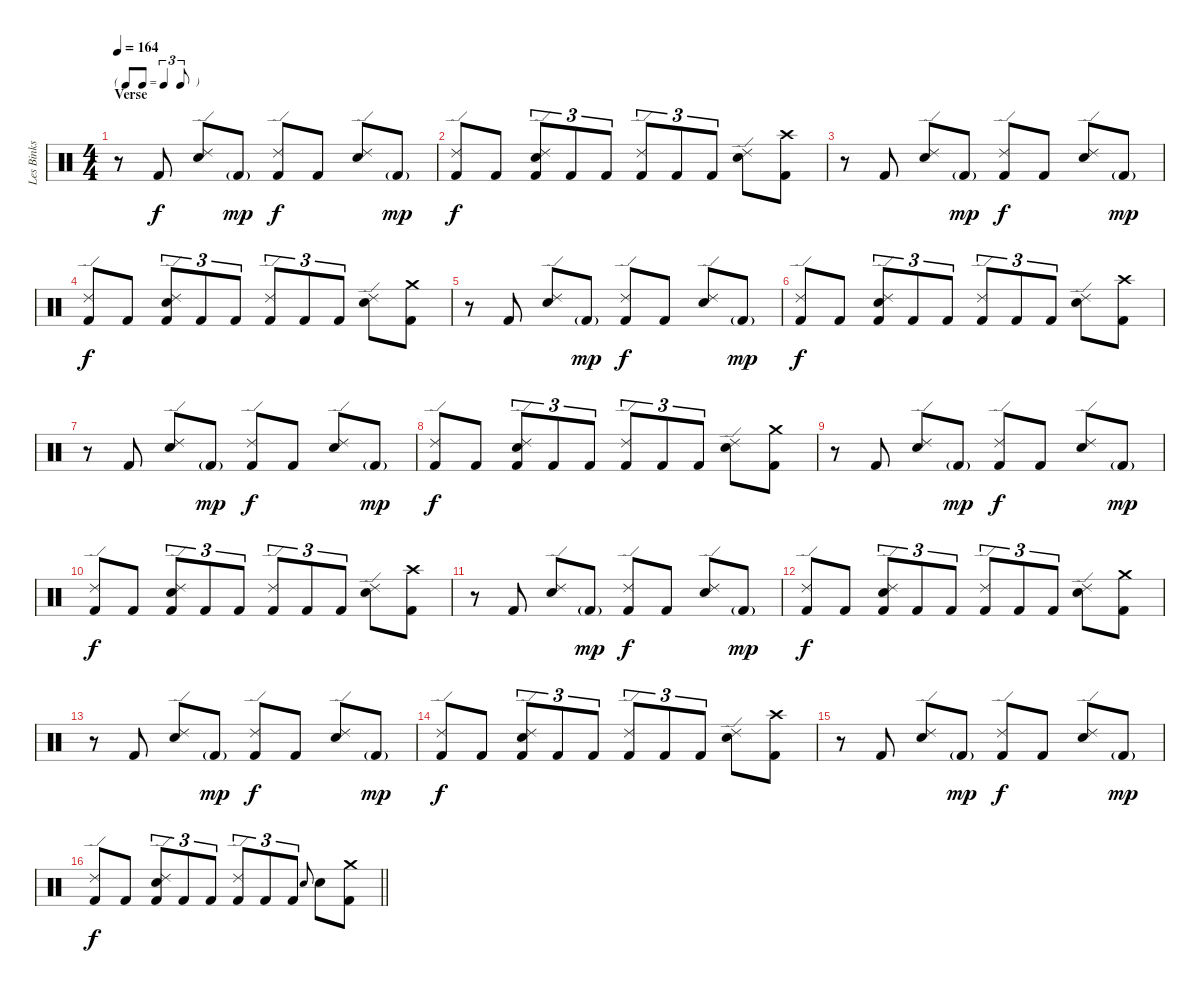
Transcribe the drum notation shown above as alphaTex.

\track ("Les Binks" "Les Binks") {instrument percussion}
\staff {score}
\articulation defaults
\ts (4 4)
\tf triplet8th
\section ("" "Verse")
\tempo 164
\clef neutral
\ks c
r.8{dy f} "Kick (hit) 2".8 ("Ride (edge) 2" "Electric Snare (hit)").8 "Kick (hit) 2"{g}.8{dy mp} ("Ride (edge) 2" "Kick (hit) 2").8{dy f} "Kick (hit) 2".8 ("Ride (edge) 2" "Electric Snare (hit)").8 "Kick (hit) 2"{g}.8{dy mp} |
("Ride (edge) 2" "Kick (hit) 2").8{dy f} "Kick (hit) 2".8 ("Ride (edge) 2" "Electric Snare (hit)" "Kick (hit) 2").8{tu (3 2)} "Kick (hit) 2".8{tu (3 2)} "Kick (hit) 2".8{tu (3 2)} ("Ride (edge) 2" "Kick (hit) 2").8{tu (3 2)} "Kick (hit) 2".8{tu (3 2)} "Kick (hit) 2".8{tu (3 2)} ("Ride (edge) 2" "Electric Snare (hit)").8 ("Crash high (hit)" "Kick (hit) 2").8 |
r.8 "Kick (hit) 2".8 ("Ride (edge) 2" "Electric Snare (hit)").8 "Kick (hit) 2"{g}.8{dy mp} ("Ride (edge) 2" "Kick (hit) 2").8{dy f} "Kick (hit) 2".8 ("Ride (edge) 2" "Electric Snare (hit)").8 "Kick (hit) 2"{g}.8{dy mp} |
("Ride (edge) 2" "Kick (hit) 2").8{dy f} "Kick (hit) 2".8 ("Ride (edge) 2" "Electric Snare (hit)" "Kick (hit) 2").8{tu (3 2)} "Kick (hit) 2".8{tu (3 2)} "Kick (hit) 2".8{tu (3 2)} ("Ride (edge) 2" "Kick (hit) 2").8{tu (3 2)} "Kick (hit) 2".8{tu (3 2)} "Kick (hit) 2".8{tu (3 2)} ("Ride (edge) 2" "Electric Snare (hit)").8 ("Crash medium (hit)" "Kick (hit) 2").8 |
r.8 "Kick (hit) 2".8 ("Ride (edge) 2" "Electric Snare (hit)").8 "Kick (hit) 2"{g}.8{dy mp} ("Ride (edge) 2" "Kick (hit) 2").8{dy f} "Kick (hit) 2".8 ("Ride (edge) 2" "Electric Snare (hit)").8 "Kick (hit) 2"{g}.8{dy mp} |
("Ride (edge) 2" "Kick (hit) 2").8{dy f} "Kick (hit) 2".8 ("Ride (edge) 2" "Electric Snare (hit)" "Kick (hit) 2").8{tu (3 2)} "Kick (hit) 2".8{tu (3 2)} "Kick (hit) 2".8{tu (3 2)} ("Ride (edge) 2" "Kick (hit) 2").8{tu (3 2)} "Kick (hit) 2".8{tu (3 2)} "Kick (hit) 2".8{tu (3 2)} ("Ride (edge) 2" "Electric Snare (hit)").8 ("Crash high (hit)" "Kick (hit) 2").8 |
r.8 "Kick (hit) 2".8 ("Ride (edge) 2" "Electric Snare (hit)").8 "Kick (hit) 2"{g}.8{dy mp} ("Ride (edge) 2" "Kick (hit) 2").8{dy f} "Kick (hit) 2".8 ("Ride (edge) 2" "Electric Snare (hit)").8 "Kick (hit) 2"{g}.8{dy mp} |
("Ride (edge) 2" "Kick (hit) 2").8{dy f} "Kick (hit) 2".8 ("Ride (edge) 2" "Electric Snare (hit)" "Kick (hit) 2").8{tu (3 2)} "Kick (hit) 2".8{tu (3 2)} "Kick (hit) 2".8{tu (3 2)} ("Ride (edge) 2" "Kick (hit) 2").8{tu (3 2)} "Kick (hit) 2".8{tu (3 2)} "Kick (hit) 2".8{tu (3 2)} ("Ride (edge) 2" "Electric Snare (hit)").8 ("Crash medium (hit)" "Kick (hit) 2").8 |
r.8 "Kick (hit) 2".8 ("Ride (edge) 2" "Electric Snare (hit)").8 "Kick (hit) 2"{g}.8{dy mp} ("Ride (edge) 2" "Kick (hit) 2").8{dy f} "Kick (hit) 2".8 ("Ride (edge) 2" "Electric Snare (hit)").8 "Kick (hit) 2"{g}.8{dy mp} |
("Ride (edge) 2" "Kick (hit) 2").8{dy f} "Kick (hit) 2".8 ("Ride (edge) 2" "Electric Snare (hit)" "Kick (hit) 2").8{tu (3 2)} "Kick (hit) 2".8{tu (3 2)} "Kick (hit) 2".8{tu (3 2)} ("Ride (edge) 2" "Kick (hit) 2").8{tu (3 2)} "Kick (hit) 2".8{tu (3 2)} "Kick (hit) 2".8{tu (3 2)} ("Ride (edge) 2" "Electric Snare (hit)").8 ("Crash high (hit)" "Kick (hit) 2").8 |
r.8 "Kick (hit) 2".8 ("Ride (edge) 2" "Electric Snare (hit)").8 "Kick (hit) 2"{g}.8{dy mp} ("Ride (edge) 2" "Kick (hit) 2").8{dy f} "Kick (hit) 2".8 ("Ride (edge) 2" "Electric Snare (hit)").8 "Kick (hit) 2"{g}.8{dy mp} |
("Ride (edge) 2" "Kick (hit) 2").8{dy f} "Kick (hit) 2".8 ("Ride (edge) 2" "Electric Snare (hit)" "Kick (hit) 2").8{tu (3 2)} "Kick (hit) 2".8{tu (3 2)} "Kick (hit) 2".8{tu (3 2)} ("Ride (edge) 2" "Kick (hit) 2").8{tu (3 2)} "Kick (hit) 2".8{tu (3 2)} "Kick (hit) 2".8{tu (3 2)} ("Ride (edge) 2" "Electric Snare (hit)").8 ("Crash medium (hit)" "Kick (hit) 2").8 |
r.8 "Kick (hit) 2".8 ("Ride (edge) 2" "Electric Snare (hit)").8 "Kick (hit) 2"{g}.8{dy mp} ("Ride (edge) 2" "Kick (hit) 2").8{dy f} "Kick (hit) 2".8 ("Ride (edge) 2" "Electric Snare (hit)").8 "Kick (hit) 2"{g}.8{dy mp} |
("Ride (edge) 2" "Kick (hit) 2").8{dy f} "Kick (hit) 2".8 ("Ride (edge) 2" "Electric Snare (hit)" "Kick (hit) 2").8{tu (3 2)} "Kick (hit) 2".8{tu (3 2)} "Kick (hit) 2".8{tu (3 2)} ("Ride (edge) 2" "Kick (hit) 2").8{tu (3 2)} "Kick (hit) 2".8{tu (3 2)} "Kick (hit) 2".8{tu (3 2)} ("Ride (edge) 2" "Electric Snare (hit)").8 ("Crash high (hit)" "Kick (hit) 2").8 |
r.8 "Kick (hit) 2".8 ("Ride (edge) 2" "Electric Snare (hit)").8 "Kick (hit) 2"{g}.8{dy mp} ("Ride (edge) 2" "Kick (hit) 2").8{dy f} "Kick (hit) 2".8 ("Ride (edge) 2" "Electric Snare (hit)").8 "Kick (hit) 2"{g}.8{dy mp} |
\barLineRight lightlight
("Ride (edge) 2" "Kick (hit) 2").8{dy f} "Kick (hit) 2".8 ("Ride (edge) 2" "Electric Snare (hit)" "Kick (hit) 2").8{tu (3 2)} "Kick (hit) 2".8{tu (3 2)} "Kick (hit) 2".8{tu (3 2)} ("Ride (edge) 2" "Kick (hit) 2").8{tu (3 2)} "Kick (hit) 2".8{tu (3 2)} "Kick (hit) 2".8{tu (3 2)} "Electric Snare (hit)".8{gr onbeat} "Electric Snare (hit)".8 ("Crash medium (hit)" "Kick (hit) 2").8
